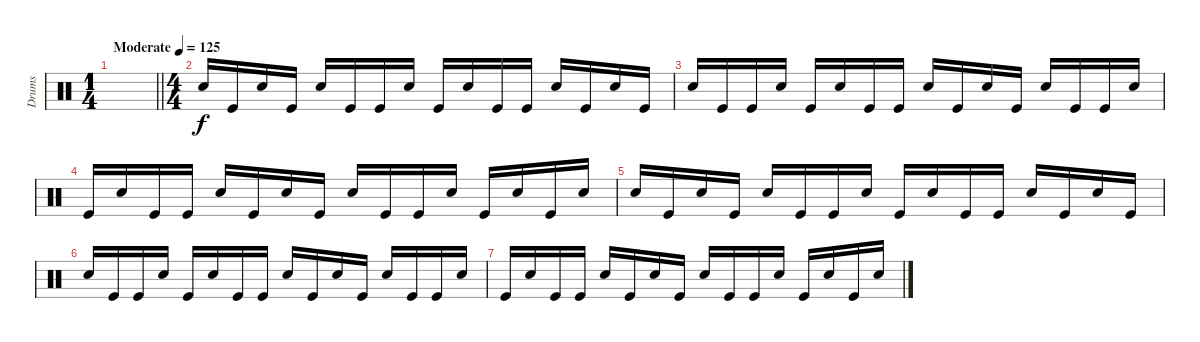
\track ("Drums" "Drums") {instrument percussion}
\staff
\articulation defaults
\ts (1 4)
\tempo (125 "Moderate")
\clef neutral
\barLineRight lightlight
\ks c
|
\ts (4 4)
"Electric Snare (hit)".16 "Kick (hit)".16 "Electric Snare (hit)".16 "Kick (hit)".16 "Electric Snare (hit)".16 "Kick (hit)".16 "Kick (hit)".16 "Electric Snare (hit)".16 "Kick (hit)".16 "Electric Snare (hit)".16 "Kick (hit)".16 "Kick (hit)".16 "Electric Snare (hit)".16 "Kick (hit)".16 "Electric Snare (hit)".16 "Kick (hit)".16 |
"Electric Snare (hit)".16 "Kick (hit)".16 "Kick (hit)".16 "Electric Snare (hit)".16 "Kick (hit)".16 "Electric Snare (hit)".16 "Kick (hit)".16 "Kick (hit)".16 "Electric Snare (hit)".16 "Kick (hit)".16 "Electric Snare (hit)".16 "Kick (hit)".16 "Electric Snare (hit)".16 "Kick (hit)".16 "Kick (hit)".16 "Electric Snare (hit)".16 |
"Kick (hit)".16 "Electric Snare (hit)".16 "Kick (hit)".16 "Kick (hit)".16 "Electric Snare (hit)".16 "Kick (hit)".16 "Electric Snare (hit)".16 "Kick (hit)".16 "Electric Snare (hit)".16 "Kick (hit)".16 "Kick (hit)".16 "Electric Snare (hit)".16 "Kick (hit)".16 "Electric Snare (hit)".16 "Kick (hit)".16 "Electric Snare (hit)".16 |
"Electric Snare (hit)".16 "Kick (hit)".16 "Electric Snare (hit)".16 "Kick (hit)".16 "Electric Snare (hit)".16 "Kick (hit)".16 "Kick (hit)".16 "Electric Snare (hit)".16 "Kick (hit)".16 "Electric Snare (hit)".16 "Kick (hit)".16 "Kick (hit)".16 "Electric Snare (hit)".16 "Kick (hit)".16 "Electric Snare (hit)".16 "Kick (hit)".16 |
"Electric Snare (hit)".16 "Kick (hit)".16 "Kick (hit)".16 "Electric Snare (hit)".16 "Kick (hit)".16 "Electric Snare (hit)".16 "Kick (hit)".16 "Kick (hit)".16 "Electric Snare (hit)".16 "Kick (hit)".16 "Electric Snare (hit)".16 "Kick (hit)".16 "Electric Snare (hit)".16 "Kick (hit)".16 "Kick (hit)".16 "Electric Snare (hit)".16 |
"Kick (hit)".16 "Electric Snare (hit)".16 "Kick (hit)".16 "Kick (hit)".16 "Electric Snare (hit)".16 "Kick (hit)".16 "Electric Snare (hit)".16 "Kick (hit)".16 "Electric Snare (hit)".16 "Kick (hit)".16 "Kick (hit)".16 "Electric Snare (hit)".16 "Kick (hit)".16 "Electric Snare (hit)".16 "Kick (hit)".16 "Electric Snare (hit)".16
